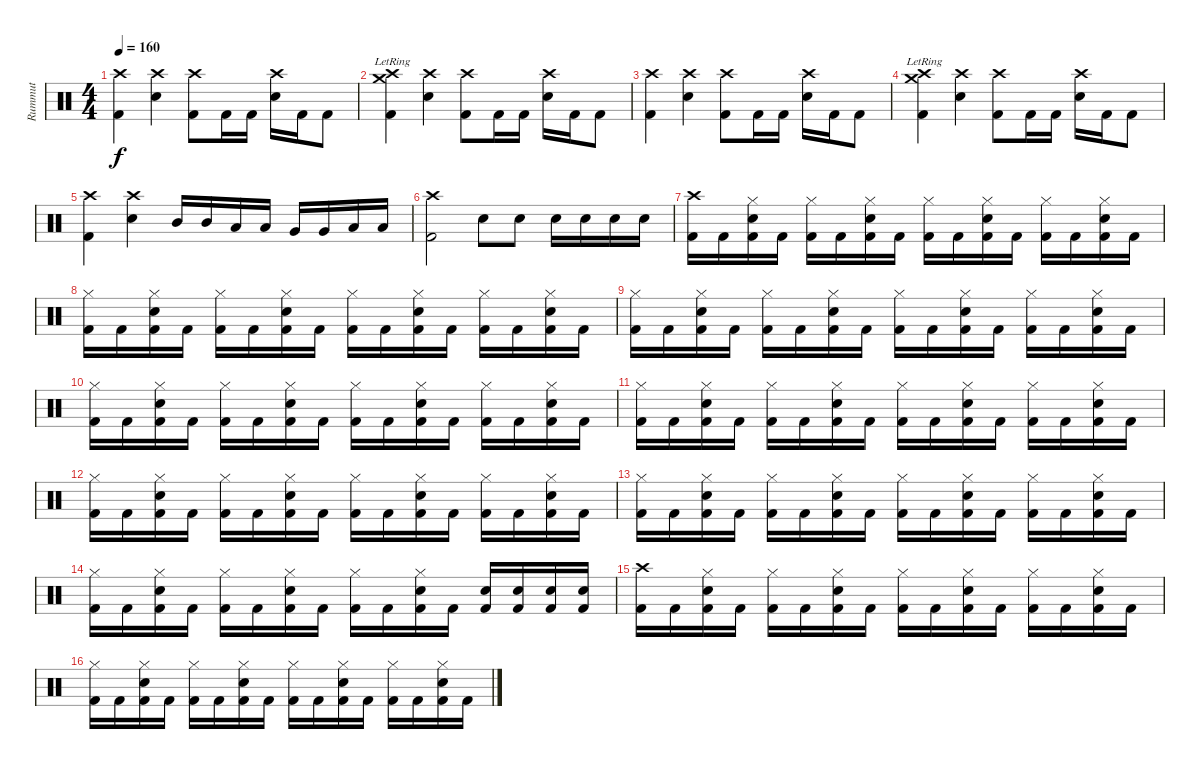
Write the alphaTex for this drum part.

\track ("Rummut" "Rummut") {instrument percussion}
\staff {score}
\articulation defaults
\ts (4 4)
\tempo 160
\clef neutral
\ks c
("Crash high (hit)" "Kick (hit) 2").4{dy f} ("Crash high (hit)" "Snare (hit) 2").4 ("Crash high (hit)" "Kick (hit) 2").8 "Kick (hit) 2".16 "Kick (hit) 2".16 ("Crash high (hit)" "Snare (hit) 2").16 "Kick (hit) 2".16 "Kick (hit) 2".8 |
("Crash high (hit)" "Crash medium (hit)"{lr} "Kick (hit) 2").4 ("Crash high (hit)" "Snare (hit) 2").4 ("Crash high (hit)" "Kick (hit) 2").8 "Kick (hit) 2".16 "Kick (hit) 2".16 ("Crash high (hit)" "Snare (hit) 2").16 "Kick (hit) 2".16 "Kick (hit) 2".8 |
("Crash high (hit)" "Kick (hit) 2").4 ("Crash high (hit)" "Snare (hit) 2").4 ("Crash high (hit)" "Kick (hit) 2").8 "Kick (hit) 2".16 "Kick (hit) 2".16 ("Crash high (hit)" "Snare (hit) 2").16 "Kick (hit) 2".16 "Kick (hit) 2".8 |
("Crash high (hit)" "Crash medium (hit)"{lr} "Kick (hit) 2").4 ("Crash high (hit)" "Snare (hit) 2").4 ("Crash high (hit)" "Kick (hit) 2").8 "Kick (hit) 2".16 "Kick (hit) 2".16 ("Crash high (hit)" "Snare (hit) 2").16 "Kick (hit) 2".16 "Kick (hit) 2".8 |
("Crash high (hit)" "Kick (hit) 2").4 ("Crash high (hit)" "Snare (hit) 2").4 "Mid Tom (hit)".16 "Mid Tom (hit)".16 "Low Tom (hit)".16 "Low Tom (hit)".16 "Very Low Tom (hit)".16 "Very Low Tom (hit)".16 "Low Floor Tom (hit)".16 "Low Floor Tom (hit)".16 |
("Crash high (hit)" "Kick (hit) 2").2 "Snare (hit) 2".8 "Snare (hit) 2".8 "Snare (hit) 2".16 "Snare (hit) 2".16 "Snare (hit) 2".16 "Snare (hit) 2".16 |
("Crash high (hit)" "Kick (hit) 2").16 "Kick (hit) 2".16 ("Hi-Hat (closed)" "Snare (hit) 2" "Kick (hit) 2").16 "Kick (hit) 2".16 ("Hi-Hat (closed)" "Kick (hit) 2").16 "Kick (hit) 2".16 ("Hi-Hat (closed)" "Snare (hit) 2" "Kick (hit) 2").16 "Kick (hit) 2".16 ("Hi-Hat (closed)" "Kick (hit) 2").16 "Kick (hit) 2".16 ("Hi-Hat (closed)" "Snare (hit) 2" "Kick (hit) 2").16 "Kick (hit) 2".16 ("Hi-Hat (closed)" "Kick (hit) 2").16 "Kick (hit) 2".16 ("Hi-Hat (closed)" "Snare (hit) 2" "Kick (hit) 2").16 "Kick (hit) 2".16 |
("Hi-Hat (closed)" "Kick (hit) 2").16 "Kick (hit) 2".16 ("Hi-Hat (closed)" "Snare (hit) 2" "Kick (hit) 2").16 "Kick (hit) 2".16 ("Hi-Hat (closed)" "Kick (hit) 2").16 "Kick (hit) 2".16 ("Hi-Hat (closed)" "Snare (hit) 2" "Kick (hit) 2").16 "Kick (hit) 2".16 ("Hi-Hat (closed)" "Kick (hit) 2").16 "Kick (hit) 2".16 ("Hi-Hat (closed)" "Snare (hit) 2" "Kick (hit) 2").16 "Kick (hit) 2".16 ("Hi-Hat (closed)" "Kick (hit) 2").16 "Kick (hit) 2".16 ("Hi-Hat (closed)" "Snare (hit) 2" "Kick (hit) 2").16 "Kick (hit) 2".16 |
("Hi-Hat (closed)" "Kick (hit) 2").16 "Kick (hit) 2".16 ("Hi-Hat (closed)" "Snare (hit) 2" "Kick (hit) 2").16 "Kick (hit) 2".16 ("Hi-Hat (closed)" "Kick (hit) 2").16 "Kick (hit) 2".16 ("Hi-Hat (closed)" "Snare (hit) 2" "Kick (hit) 2").16 "Kick (hit) 2".16 ("Hi-Hat (closed)" "Kick (hit) 2").16 "Kick (hit) 2".16 ("Hi-Hat (closed)" "Snare (hit) 2" "Kick (hit) 2").16 "Kick (hit) 2".16 ("Hi-Hat (closed)" "Kick (hit) 2").16 "Kick (hit) 2".16 ("Hi-Hat (closed)" "Snare (hit) 2" "Kick (hit) 2").16 "Kick (hit) 2".16 |
("Hi-Hat (closed)" "Kick (hit) 2").16 "Kick (hit) 2".16 ("Hi-Hat (closed)" "Snare (hit) 2" "Kick (hit) 2").16 "Kick (hit) 2".16 ("Hi-Hat (closed)" "Kick (hit) 2").16 "Kick (hit) 2".16 ("Hi-Hat (closed)" "Snare (hit) 2" "Kick (hit) 2").16 "Kick (hit) 2".16 ("Hi-Hat (closed)" "Kick (hit) 2").16 "Kick (hit) 2".16 ("Hi-Hat (closed)" "Snare (hit) 2" "Kick (hit) 2").16 "Kick (hit) 2".16 ("Hi-Hat (closed)" "Kick (hit) 2").16 "Kick (hit) 2".16 ("Hi-Hat (closed)" "Snare (hit) 2" "Kick (hit) 2").16 "Kick (hit) 2".16 |
("Hi-Hat (closed)" "Kick (hit) 2").16 "Kick (hit) 2".16 ("Hi-Hat (closed)" "Snare (hit) 2" "Kick (hit) 2").16 "Kick (hit) 2".16 ("Hi-Hat (closed)" "Kick (hit) 2").16 "Kick (hit) 2".16 ("Hi-Hat (closed)" "Snare (hit) 2" "Kick (hit) 2").16 "Kick (hit) 2".16 ("Hi-Hat (closed)" "Kick (hit) 2").16 "Kick (hit) 2".16 ("Hi-Hat (closed)" "Snare (hit) 2" "Kick (hit) 2").16 "Kick (hit) 2".16 ("Hi-Hat (closed)" "Kick (hit) 2").16 "Kick (hit) 2".16 ("Hi-Hat (closed)" "Snare (hit) 2" "Kick (hit) 2").16 "Kick (hit) 2".16 |
("Hi-Hat (closed)" "Kick (hit) 2").16 "Kick (hit) 2".16 ("Hi-Hat (closed)" "Snare (hit) 2" "Kick (hit) 2").16 "Kick (hit) 2".16 ("Hi-Hat (closed)" "Kick (hit) 2").16 "Kick (hit) 2".16 ("Hi-Hat (closed)" "Snare (hit) 2" "Kick (hit) 2").16 "Kick (hit) 2".16 ("Hi-Hat (closed)" "Kick (hit) 2").16 "Kick (hit) 2".16 ("Hi-Hat (closed)" "Snare (hit) 2" "Kick (hit) 2").16 "Kick (hit) 2".16 ("Hi-Hat (closed)" "Kick (hit) 2").16 "Kick (hit) 2".16 ("Hi-Hat (closed)" "Snare (hit) 2" "Kick (hit) 2").16 "Kick (hit) 2".16 |
("Hi-Hat (closed)" "Kick (hit) 2").16 "Kick (hit) 2".16 ("Hi-Hat (closed)" "Snare (hit) 2" "Kick (hit) 2").16 "Kick (hit) 2".16 ("Hi-Hat (closed)" "Kick (hit) 2").16 "Kick (hit) 2".16 ("Hi-Hat (closed)" "Snare (hit) 2" "Kick (hit) 2").16 "Kick (hit) 2".16 ("Hi-Hat (closed)" "Kick (hit) 2").16 "Kick (hit) 2".16 ("Hi-Hat (closed)" "Snare (hit) 2" "Kick (hit) 2").16 "Kick (hit) 2".16 ("Hi-Hat (closed)" "Kick (hit) 2").16 "Kick (hit) 2".16 ("Hi-Hat (closed)" "Snare (hit) 2" "Kick (hit) 2").16 "Kick (hit) 2".16 |
("Hi-Hat (closed)" "Kick (hit) 2").16 "Kick (hit) 2".16 ("Hi-Hat (closed)" "Snare (hit) 2" "Kick (hit) 2").16 "Kick (hit) 2".16 ("Hi-Hat (closed)" "Kick (hit) 2").16 "Kick (hit) 2".16 ("Hi-Hat (closed)" "Snare (hit) 2" "Kick (hit) 2").16 "Kick (hit) 2".16 ("Hi-Hat (closed)" "Kick (hit) 2").16 "Kick (hit) 2".16 ("Hi-Hat (closed)" "Snare (hit) 2" "Kick (hit) 2").16 "Kick (hit) 2".16 ("Snare (hit) 2" "Kick (hit) 2").16 ("Snare (hit) 2" "Kick (hit) 2").16 ("Snare (hit) 2" "Kick (hit) 2").16 ("Snare (hit) 2" "Kick (hit) 2").16 |
("Crash high (hit)" "Kick (hit) 2").16 "Kick (hit) 2".16 ("Hi-Hat (closed)" "Snare (hit) 2" "Kick (hit) 2").16 "Kick (hit) 2".16 ("Hi-Hat (closed)" "Kick (hit) 2").16 "Kick (hit) 2".16 ("Hi-Hat (closed)" "Snare (hit) 2" "Kick (hit) 2").16 "Kick (hit) 2".16 ("Hi-Hat (closed)" "Kick (hit) 2").16 "Kick (hit) 2".16 ("Hi-Hat (closed)" "Snare (hit) 2" "Kick (hit) 2").16 "Kick (hit) 2".16 ("Hi-Hat (closed)" "Kick (hit) 2").16 "Kick (hit) 2".16 ("Hi-Hat (closed)" "Snare (hit) 2" "Kick (hit) 2").16 "Kick (hit) 2".16 |
("Hi-Hat (closed)" "Kick (hit) 2").16 "Kick (hit) 2".16 ("Hi-Hat (closed)" "Snare (hit) 2" "Kick (hit) 2").16 "Kick (hit) 2".16 ("Hi-Hat (closed)" "Kick (hit) 2").16 "Kick (hit) 2".16 ("Hi-Hat (closed)" "Snare (hit) 2" "Kick (hit) 2").16 "Kick (hit) 2".16 ("Hi-Hat (closed)" "Kick (hit) 2").16 "Kick (hit) 2".16 ("Hi-Hat (closed)" "Snare (hit) 2" "Kick (hit) 2").16 "Kick (hit) 2".16 ("Hi-Hat (closed)" "Kick (hit) 2").16 "Kick (hit) 2".16 ("Hi-Hat (closed)" "Snare (hit) 2" "Kick (hit) 2").16 "Kick (hit) 2".16
